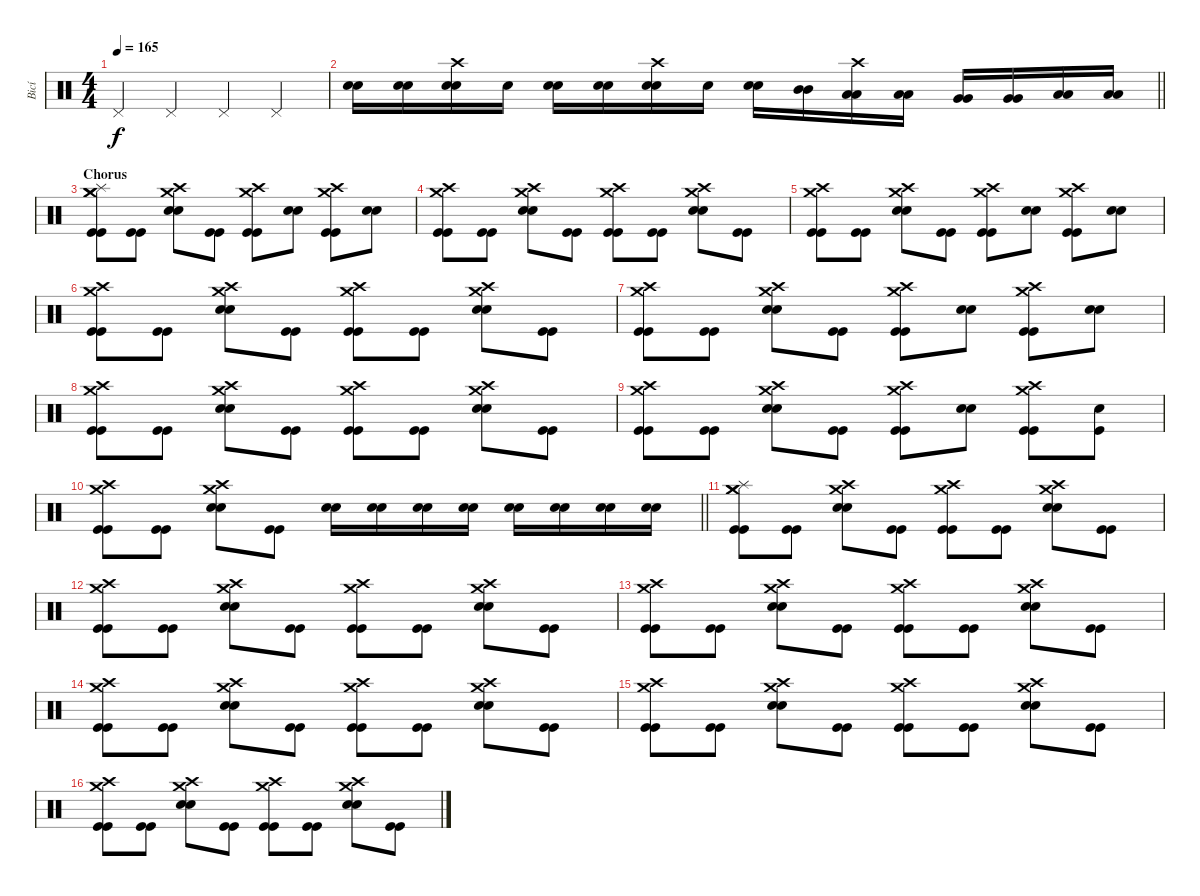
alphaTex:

\track ("Bicí" "Bicí") {instrument percussion}
\staff {score}
\articulation defaults
\ts (4 4)
\tempo 165
\clef neutral
\ks c "Pedal Hi-Hat (hit)".4{dy f} "Pedal Hi-Hat (hit)".4 "Pedal Hi-Hat (hit)".4 "Pedal Hi-Hat (hit)".4
|
\barLineRight lightlight
("Electric Snare (hit)" "Electric Snare (hit)").16 ("Electric Snare (hit)" "Electric Snare (hit)").16 ("Crash high (hit)" "Electric Snare (hit)" "Electric Snare (hit)").16 "Snare (hit)".16 ("Electric Snare (hit)" "Electric Snare (hit)").16 ("Electric Snare (hit)" "Electric Snare (hit)").16 ("Crash high (hit)" "Electric Snare (hit)" "Electric Snare (hit)").16 "Snare (hit)".16 ("Electric Snare (hit)" "Electric Snare (hit)").16 ("Mid Tom (hit)" "Mid Tom (hit)").16 ("Crash high (hit)" "Low Tom (hit)" "Low Tom (hit)").16 ("Low Tom (hit)" "Low Tom (hit)").16 ("Very Low Tom (hit)" "Very Low Tom (hit)").16 ("Very Low Tom (hit)" "Very Low Tom (hit)").16 ("Low Floor Tom (hit)" "Low Floor Tom (hit)").16 ("Low Floor Tom (hit)" "Low Floor Tom (hit)").16 |
\section ("" "Chorus")
("Crash medium (hit)" "Crash medium (hit)" "Splash (hit)" "Kick (hit)" "Kick (hit)").8 ("Kick (hit)" "Kick (hit)").8 ("Crash medium (hit)" "Crash high (hit)" "Electric Snare (hit)" "Electric Snare (hit)").8 ("Kick (hit)" "Kick (hit)").8 ("Crash medium (hit)" "Crash high (hit)" "Kick (hit)" "Kick (hit)").8 ("Electric Snare (hit)" "Electric Snare (hit)").8 ("Crash medium (hit)" "Crash high (hit)" "Kick (hit)" "Kick (hit)").8 ("Electric Snare (hit)" "Electric Snare (hit)").8 |
("Crash medium (hit)" "Crash high (hit)" "Kick (hit)" "Kick (hit)").8 ("Kick (hit)" "Kick (hit)").8 ("Crash medium (hit)" "Crash high (hit)" "Electric Snare (hit)" "Electric Snare (hit)").8 ("Kick (hit)" "Kick (hit)").8 ("Crash medium (hit)" "Crash high (hit)" "Kick (hit)" "Kick (hit)").8 ("Kick (hit)" "Kick (hit)").8 ("Crash medium (hit)" "Crash high (hit)" "Electric Snare (hit)" "Electric Snare (hit)").8 ("Kick (hit)" "Kick (hit)").8 |
("Crash medium (hit)" "Crash high (hit)" "Kick (hit)" "Kick (hit)").8 ("Kick (hit)" "Kick (hit)").8 ("Crash medium (hit)" "Crash high (hit)" "Electric Snare (hit)" "Electric Snare (hit)").8 ("Kick (hit)" "Kick (hit)").8 ("Crash medium (hit)" "Crash high (hit)" "Kick (hit)" "Kick (hit)").8 ("Electric Snare (hit)" "Electric Snare (hit)").8 ("Crash medium (hit)" "Crash high (hit)" "Kick (hit)" "Kick (hit)").8 ("Electric Snare (hit)" "Electric Snare (hit)").8 |
("Crash medium (hit)" "Crash high (hit)" "Kick (hit)" "Kick (hit)").8 ("Kick (hit)" "Kick (hit)").8 ("Crash medium (hit)" "Crash high (hit)" "Electric Snare (hit)" "Electric Snare (hit)").8 ("Kick (hit)" "Kick (hit)").8 ("Crash medium (hit)" "Crash high (hit)" "Kick (hit)" "Kick (hit)").8 ("Kick (hit)" "Kick (hit)").8 ("Crash medium (hit)" "Crash high (hit)" "Electric Snare (hit)" "Electric Snare (hit)").8 ("Kick (hit)" "Kick (hit)").8 |
("Crash medium (hit)" "Crash high (hit)" "Kick (hit)" "Kick (hit)").8 ("Kick (hit)" "Kick (hit)").8 ("Crash medium (hit)" "Crash high (hit)" "Electric Snare (hit)" "Electric Snare (hit)").8 ("Kick (hit)" "Kick (hit)").8 ("Crash medium (hit)" "Crash high (hit)" "Kick (hit)" "Kick (hit)").8 ("Electric Snare (hit)" "Electric Snare (hit)").8 ("Crash medium (hit)" "Crash high (hit)" "Kick (hit)" "Kick (hit)").8 ("Electric Snare (hit)" "Electric Snare (hit)").8 |
("Crash medium (hit)" "Crash high (hit)" "Kick (hit)" "Kick (hit)").8 ("Kick (hit)" "Kick (hit)").8 ("Crash medium (hit)" "Crash high (hit)" "Electric Snare (hit)" "Electric Snare (hit)").8 ("Kick (hit)" "Kick (hit)").8 ("Crash medium (hit)" "Crash high (hit)" "Kick (hit)" "Kick (hit)").8 ("Kick (hit)" "Kick (hit)").8 ("Crash medium (hit)" "Crash high (hit)" "Electric Snare (hit)" "Electric Snare (hit)").8 ("Kick (hit)" "Kick (hit)").8 |
("Crash medium (hit)" "Crash high (hit)" "Kick (hit)" "Kick (hit)").8 ("Kick (hit)" "Kick (hit)").8 ("Crash medium (hit)" "Crash high (hit)" "Electric Snare (hit)" "Electric Snare (hit)").8 ("Kick (hit)" "Kick (hit)").8 ("Crash medium (hit)" "Crash high (hit)" "Kick (hit)" "Kick (hit)").8 ("Electric Snare (hit)" "Electric Snare (hit)").8 ("Crash medium (hit)" "Crash high (hit)" "Kick (hit)" "Kick (hit)").8 ("Kick (hit)" "Electric Snare (hit)").8 |
\barLineRight lightlight
("Crash medium (hit)" "Crash high (hit)" "Kick (hit)" "Kick (hit)").8 ("Kick (hit)" "Kick (hit)").8 ("Crash medium (hit)" "Crash high (hit)" "Electric Snare (hit)" "Electric Snare (hit)").8 ("Kick (hit)" "Kick (hit)").8 ("Electric Snare (hit)" "Electric Snare (hit)").16 ("Electric Snare (hit)" "Electric Snare (hit)").16 ("Electric Snare (hit)" "Electric Snare (hit)").16 ("Electric Snare (hit)" "Electric Snare (hit)").16 ("Electric Snare (hit)" "Electric Snare (hit)").16 ("Electric Snare (hit)" "Electric Snare (hit)").16 ("Electric Snare (hit)" "Electric Snare (hit)").16 ("Electric Snare (hit)" "Electric Snare (hit)").16 |
("Crash medium (hit)" "Crash medium (hit)" "Splash (hit)" "Kick (hit)" "Kick (hit)").8 ("Kick (hit)" "Kick (hit)").8 ("Crash medium (hit)" "Crash high (hit)" "Electric Snare (hit)" "Electric Snare (hit)").8 ("Kick (hit)" "Kick (hit)").8 ("Crash medium (hit)" "Crash high (hit)" "Kick (hit)" "Kick (hit)").8 ("Kick (hit)" "Kick (hit)").8 ("Crash medium (hit)" "Crash high (hit)" "Electric Snare (hit)" "Electric Snare (hit)").8 ("Kick (hit)" "Kick (hit)").8 |
("Crash medium (hit)" "Crash high (hit)" "Kick (hit)" "Kick (hit)").8 ("Kick (hit)" "Kick (hit)").8 ("Crash medium (hit)" "Crash high (hit)" "Electric Snare (hit)" "Electric Snare (hit)").8 ("Kick (hit)" "Kick (hit)").8 ("Crash medium (hit)" "Crash high (hit)" "Kick (hit)" "Kick (hit)").8 ("Kick (hit)" "Kick (hit)").8 ("Crash medium (hit)" "Crash high (hit)" "Electric Snare (hit)" "Electric Snare (hit)").8 ("Kick (hit)" "Kick (hit)").8 |
("Crash medium (hit)" "Crash high (hit)" "Kick (hit)" "Kick (hit)").8 ("Kick (hit)" "Kick (hit)").8 ("Crash medium (hit)" "Crash high (hit)" "Electric Snare (hit)" "Electric Snare (hit)").8 ("Kick (hit)" "Kick (hit)").8 ("Crash medium (hit)" "Crash high (hit)" "Kick (hit)" "Kick (hit)").8 ("Kick (hit)" "Kick (hit)").8 ("Crash medium (hit)" "Crash high (hit)" "Electric Snare (hit)" "Electric Snare (hit)").8 ("Kick (hit)" "Kick (hit)").8 |
("Crash medium (hit)" "Crash high (hit)" "Kick (hit)" "Kick (hit)").8 ("Kick (hit)" "Kick (hit)").8 ("Crash medium (hit)" "Crash high (hit)" "Electric Snare (hit)" "Electric Snare (hit)").8 ("Kick (hit)" "Kick (hit)").8 ("Crash medium (hit)" "Crash high (hit)" "Kick (hit)" "Kick (hit)").8 ("Kick (hit)" "Kick (hit)").8 ("Crash medium (hit)" "Crash high (hit)" "Electric Snare (hit)" "Electric Snare (hit)").8 ("Kick (hit)" "Kick (hit)").8 |
("Crash medium (hit)" "Crash high (hit)" "Kick (hit)" "Kick (hit)").8 ("Kick (hit)" "Kick (hit)").8 ("Crash medium (hit)" "Crash high (hit)" "Electric Snare (hit)" "Electric Snare (hit)").8 ("Kick (hit)" "Kick (hit)").8 ("Crash medium (hit)" "Crash high (hit)" "Kick (hit)" "Kick (hit)").8 ("Kick (hit)" "Kick (hit)").8 ("Crash medium (hit)" "Crash high (hit)" "Electric Snare (hit)" "Electric Snare (hit)").8 ("Kick (hit)" "Kick (hit)").8 |
("Crash medium (hit)" "Crash high (hit)" "Kick (hit)" "Kick (hit)").8 ("Kick (hit)" "Kick (hit)").8 ("Crash medium (hit)" "Crash high (hit)" "Electric Snare (hit)" "Electric Snare (hit)").8 ("Kick (hit)" "Kick (hit)").8 ("Crash medium (hit)" "Crash high (hit)" "Kick (hit)" "Kick (hit)").8 ("Kick (hit)" "Kick (hit)").8 ("Crash medium (hit)" "Crash high (hit)" "Electric Snare (hit)" "Electric Snare (hit)").8 ("Kick (hit)" "Kick (hit)").8
